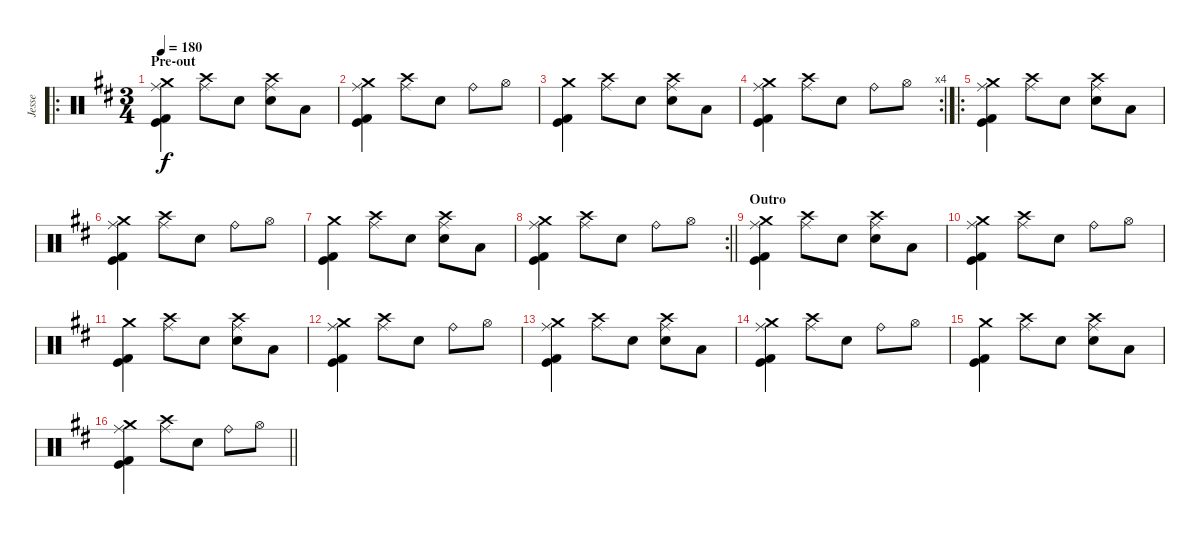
\track ("Jesse" "Jesse") {instrument percussion}
\staff {score}
\articulation defaults
\ro
\ts (3 4)
\section ("" "Pre-out")
\tempo 180
\clef neutral
\ks d
("Crash medium (hit)" "Ride (middle)" "Kick (hit)" "Kick (hit) 2").4{dy f} ("Crash high (hit)" "Ride (middle)").8 "Electric Snare (hit)".8 ("Crash high (hit)" "Ride (middle)" "Electric Snare (hit)").8 "Low Tom (hit)".8 |
("Crash medium (hit)" "Ride (middle)" "Kick (hit)" "Kick (hit) 2").4 ("Crash high (hit)" "Ride (middle)").8 "Electric Snare (hit)".8 "Ride (bell)".8 "Hi-Hat (open)".8 |
("Crash medium (hit)" "Kick (hit)" "Kick (hit) 2").4 ("Crash high (hit)" "Ride (middle)").8 "Electric Snare (hit)".8 ("Crash high (hit)" "Ride (middle)" "Electric Snare (hit)").8 "Low Tom (hit)".8 |
\rc 4
("Crash medium (hit)" "Ride (middle)" "Kick (hit)" "Kick (hit) 2").4 ("Crash high (hit)" "Ride (middle)").8 "Electric Snare (hit)".8 "Ride (bell)".8 "Hi-Hat (open)".8 |
\ro
("Crash medium (hit)" "Ride (middle)" "Kick (hit)" "Kick (hit) 2").4 ("Crash high (hit)" "Ride (middle)").8 "Electric Snare (hit)".8 ("Crash high (hit)" "Ride (middle)" "Electric Snare (hit)").8 "Low Tom (hit)".8 |
("Crash medium (hit)" "Ride (middle)" "Kick (hit)" "Kick (hit) 2").4 ("Crash high (hit)" "Ride (middle)").8 "Electric Snare (hit)".8 "Ride (bell)".8 "Hi-Hat (open)".8 |
("Crash medium (hit)" "Kick (hit)" "Kick (hit) 2").4 ("Crash high (hit)" "Ride (middle)").8 "Electric Snare (hit)".8 ("Crash high (hit)" "Ride (middle)" "Electric Snare (hit)").8 "Low Tom (hit)".8 |
\rc 2
\barLineRight lightlight
("Crash medium (hit)" "Ride (middle)" "Kick (hit)" "Kick (hit) 2").4 ("Crash high (hit)" "Ride (middle)").8 "Electric Snare (hit)".8 "Ride (bell)".8 "Hi-Hat (open)".8 |
\section ("" "Outro")
("Crash medium (hit)" "Ride (middle)" "Kick (hit)" "Kick (hit) 2").4 ("Crash high (hit)" "Ride (middle)").8 "Electric Snare (hit)".8 ("Crash high (hit)" "Ride (middle)" "Electric Snare (hit)").8 "Low Tom (hit)".8 |
("Crash medium (hit)" "Ride (middle)" "Kick (hit)" "Kick (hit) 2").4 ("Crash high (hit)" "Ride (middle)").8 "Electric Snare (hit)".8 "Ride (bell)".8 "Hi-Hat (open)".8 |
("Crash medium (hit)" "Kick (hit)" "Kick (hit) 2").4 ("Crash high (hit)" "Ride (middle)").8 "Electric Snare (hit)".8 ("Crash high (hit)" "Ride (middle)" "Electric Snare (hit)").8 "Low Tom (hit)".8 |
("Crash medium (hit)" "Ride (middle)" "Kick (hit)" "Kick (hit) 2").4 ("Crash high (hit)" "Ride (middle)").8 "Electric Snare (hit)".8 "Ride (bell)".8 "Hi-Hat (open)".8 |
("Crash medium (hit)" "Ride (middle)" "Kick (hit)" "Kick (hit) 2").4 ("Crash high (hit)" "Ride (middle)").8 "Electric Snare (hit)".8 ("Crash high (hit)" "Ride (middle)" "Electric Snare (hit)").8 "Low Tom (hit)".8 |
("Crash medium (hit)" "Ride (middle)" "Kick (hit)" "Kick (hit) 2").4 ("Crash high (hit)" "Ride (middle)").8 "Electric Snare (hit)".8 "Ride (bell)".8 "Hi-Hat (open)".8 |
("Crash medium (hit)" "Kick (hit)" "Kick (hit) 2").4 ("Crash high (hit)" "Ride (middle)").8 "Electric Snare (hit)".8 ("Crash high (hit)" "Ride (middle)" "Electric Snare (hit)").8 "Low Tom (hit)".8 |
\barLineRight lightlight
("Crash medium (hit)" "Ride (middle)" "Kick (hit)" "Kick (hit) 2").4 ("Crash high (hit)" "Ride (middle)").8 "Electric Snare (hit)".8 "Ride (bell)".8 "Hi-Hat (open)".8
